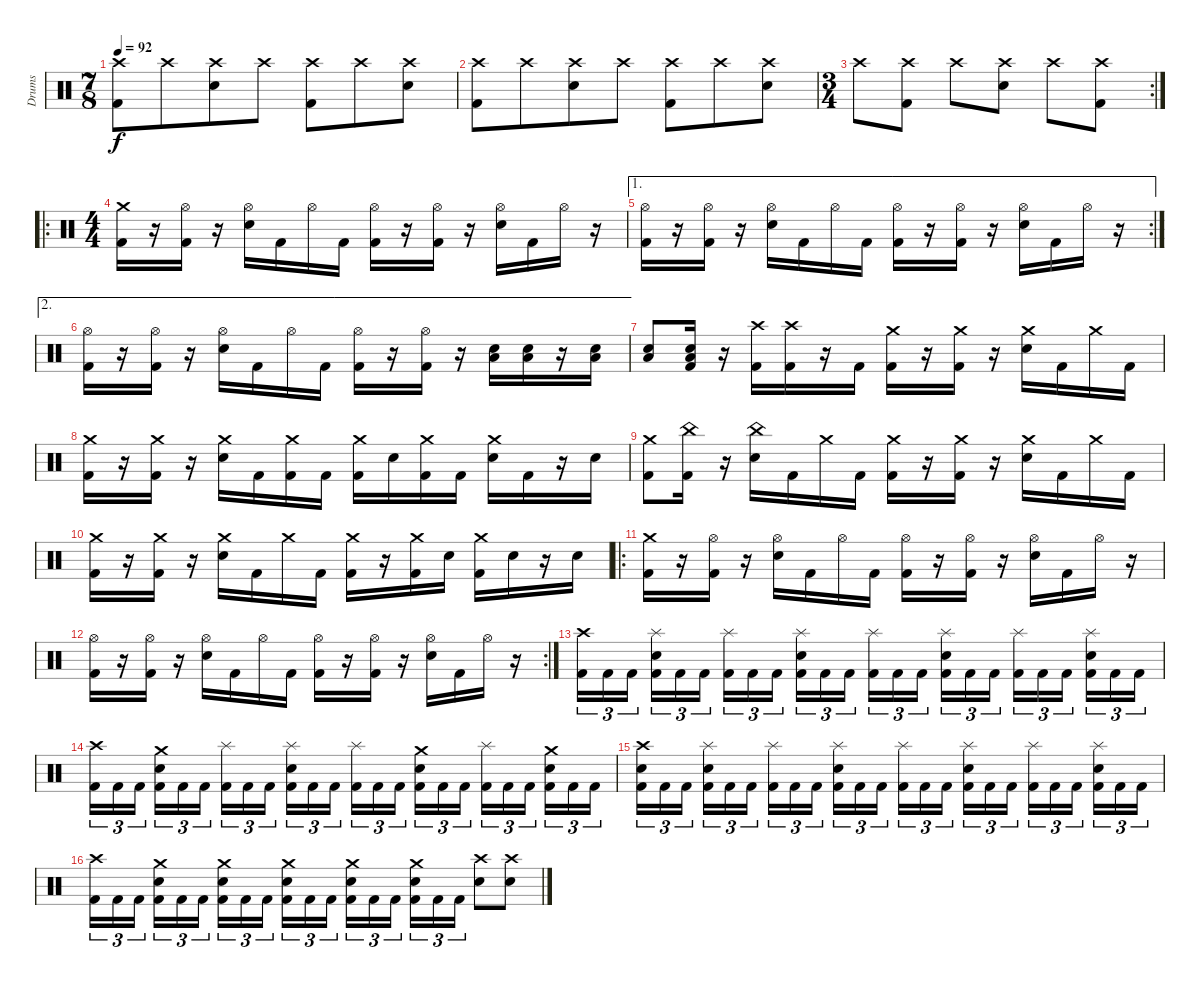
\track ("Drums" "Drums") {instrument percussion}
\staff {score}
\articulation defaults
\ts (7 8)
\tempo 92
\clef neutral
\ks c
("Crash high (hit)" "Kick (hit) 2").8{dy f} "Crash high (hit)".8 ("Crash high (hit)" "Snare (hit) 2").8 "Crash high (hit)".8 ("Crash high (hit)" "Kick (hit) 2").8 "Crash high (hit)".8 ("Crash high (hit)" "Snare (hit) 2").8 |
("Crash high (hit)" "Kick (hit) 2").8 "Crash high (hit)".8 ("Crash high (hit)" "Snare (hit) 2").8 "Crash high (hit)".8 ("Crash high (hit)" "Kick (hit) 2").8 "Crash high (hit)".8 ("Crash high (hit)" "Snare (hit) 2").8 |
\rc 2
\ts (3 4)
"Crash high (hit)".8 ("Crash high (hit)" "Kick (hit) 2").8 "Crash high (hit)".8 ("Crash high (hit)" "Snare (hit) 2").8 "Crash high (hit)".8 ("Crash high (hit)" "Kick (hit) 2").8 |
\ro
\ts (4 4)
("Crash medium (hit)" "Kick (hit) 2").16 r.16 ("Hi-Hat (open)" "Kick (hit) 2").16 r.16 ("Hi-Hat (open)" "Snare (hit) 2").16 "Kick (hit) 2".16 "Hi-Hat (open)".16 "Kick (hit) 2".16 ("Hi-Hat (open)" "Kick (hit) 2").16 r.16 ("Hi-Hat (open)" "Kick (hit) 2").16 r.16 ("Hi-Hat (open)" "Snare (hit) 2").16 "Kick (hit) 2".16 "Hi-Hat (open)".16 r.16 |
\ae 1
\rc 2
("Hi-Hat (open)" "Kick (hit) 2").16 r.16 ("Hi-Hat (open)" "Kick (hit) 2").16 r.16 ("Hi-Hat (open)" "Snare (hit) 2").16 "Kick (hit) 2".16 "Hi-Hat (open)".16 "Kick (hit) 2".16 ("Hi-Hat (open)" "Kick (hit) 2").16 r.16 ("Hi-Hat (open)" "Kick (hit) 2").16 r.16 ("Hi-Hat (open)" "Snare (hit) 2").16 "Kick (hit) 2".16 "Hi-Hat (open)".16 r.16 |
\ae 2
("Hi-Hat (open)" "Kick (hit) 2").16 r.16 ("Hi-Hat (open)" "Kick (hit) 2").16 r.16 ("Hi-Hat (open)" "Snare (hit) 2").16 "Kick (hit) 2".16 "Hi-Hat (open)".16 "Kick (hit) 2".16 ("Hi-Hat (open)" "Kick (hit) 2").16 r.16 ("Hi-Hat (open)" "Kick (hit) 2").16 r.16 ("Low Floor Tom (hit)" "Snare (hit) 2").16 ("Low Floor Tom (hit)" "Snare (hit) 2").16 r.16 ("Low Floor Tom (hit)" "Snare (hit) 2").16 |
("Low Floor Tom (hit)" "Snare (hit) 2").8 ("Low Floor Tom (hit)" "Snare (hit) 2" "Kick (hit) 2").16 r.16 ("Crash high (hit)" "Kick (hit) 2").16 ("Crash high (hit)" "Kick (hit) 2").16 r.16 "Kick (hit) 2".16 ("Crash medium (hit)" "Kick (hit) 2").16 r.16 ("Crash medium (hit)" "Kick (hit) 2").16 r.16 ("Crash medium (hit)" "Snare (hit) 2").16 "Kick (hit) 2".16 "Crash medium (hit)".16 "Kick (hit) 2".16 |
("Crash medium (hit)" "Kick (hit) 2").16 r.16 ("Crash medium (hit)" "Kick (hit) 2").16 r.16 ("Crash medium (hit)" "Snare (hit) 2").16 "Kick (hit) 2".16 ("Crash medium (hit)" "Kick (hit) 2").16 "Kick (hit) 2".16 ("Crash medium (hit)" "Kick (hit) 2").16 "Snare (hit) 2".16 ("Crash medium (hit)" "Kick (hit) 2").16 "Kick (hit) 2".16 ("Crash medium (hit)" "Snare (hit) 2").16 "Kick (hit) 2".16 r.16 "Snare (hit) 2".16 |
("Crash medium (hit)" "Kick (hit) 2").8 ("China (hit)" "Kick (hit) 2").16 r.16 ("China (hit)" "Snare (hit) 2").16 "Kick (hit) 2".16 "Crash medium (hit)".16 "Kick (hit) 2".16 ("Crash medium (hit)" "Kick (hit) 2").16 r.16 ("Crash medium (hit)" "Kick (hit) 2").16 r.16 ("Crash medium (hit)" "Snare (hit) 2").16 "Kick (hit) 2".16 "Crash medium (hit)".16 "Kick (hit) 2".16 |
("Crash medium (hit)" "Kick (hit) 2").16 r.16 ("Crash medium (hit)" "Kick (hit) 2").16 r.16 ("Crash medium (hit)" "Snare (hit) 2").16 "Kick (hit) 2".16 "Crash medium (hit)".16 "Kick (hit) 2".16 ("Crash medium (hit)" "Kick (hit) 2").16 r.16 ("Crash medium (hit)" "Kick (hit) 2").16 "Snare (hit) 2".16 ("Crash medium (hit)" "Kick (hit) 2").16 "Snare (hit) 2".16 r.16 "Snare (hit) 2".16 |
\ro
("Crash medium (hit)" "Kick (hit) 2").16 r.16 ("Hi-Hat (open)" "Kick (hit) 2").16 r.16 ("Hi-Hat (open)" "Snare (hit) 2").16 "Kick (hit) 2".16 "Hi-Hat (open)".16 "Kick (hit) 2".16 ("Hi-Hat (open)" "Kick (hit) 2").16 r.16 ("Hi-Hat (open)" "Kick (hit) 2").16 r.16 ("Hi-Hat (open)" "Snare (hit) 2").16 "Kick (hit) 2".16 "Hi-Hat (open)".16 r.16 |
\rc 2
("Hi-Hat (open)" "Kick (hit) 2").16 r.16 ("Hi-Hat (open)" "Kick (hit) 2").16 r.16 ("Hi-Hat (open)" "Snare (hit) 2").16 "Kick (hit) 2".16 "Hi-Hat (open)".16 "Kick (hit) 2".16 ("Hi-Hat (open)" "Kick (hit) 2").16 r.16 ("Hi-Hat (open)" "Kick (hit) 2").16 r.16 ("Hi-Hat (open)" "Snare (hit) 2").16 "Kick (hit) 2".16 "Hi-Hat (open)".16 r.16 |
("Crash high (hit)" "Kick (hit) 2").16{tu (3 2)} "Kick (hit) 2".16{tu (3 2)} "Kick (hit) 2".16{tu (3 2)} ("Splash (hit)" "Snare (hit) 2" "Kick (hit) 2").16{tu (3 2)} "Kick (hit) 2".16{tu (3 2)} "Kick (hit) 2".16{tu (3 2)} ("Splash (hit)" "Kick (hit) 2").16{tu (3 2)} "Kick (hit) 2".16{tu (3 2)} "Kick (hit) 2".16{tu (3 2)} ("Splash (hit)" "Snare (hit) 2" "Kick (hit) 2").16{tu (3 2)} "Kick (hit) 2".16{tu (3 2)} "Kick (hit) 2".16{tu (3 2)} ("Splash (hit)" "Kick (hit) 2").16{tu (3 2)} "Kick (hit) 2".16{tu (3 2)} "Kick (hit) 2".16{tu (3 2)} ("Splash (hit)" "Snare (hit) 2" "Kick (hit) 2").16{tu (3 2)} "Kick (hit) 2".16{tu (3 2)} "Kick (hit) 2".16{tu (3 2)} ("Splash (hit)" "Kick (hit) 2").16{tu (3 2)} "Kick (hit) 2".16{tu (3 2)} "Kick (hit) 2".16{tu (3 2)} ("Splash (hit)" "Snare (hit) 2" "Kick (hit) 2").16{tu (3 2)} "Kick (hit) 2".16{tu (3 2)} "Kick (hit) 2".16{tu (3 2)} |
("Crash high (hit)" "Kick (hit) 2").16{tu (3 2)} "Kick (hit) 2".16{tu (3 2)} "Kick (hit) 2".16{tu (3 2)} ("Crash medium (hit)" "Snare (hit) 2" "Kick (hit) 2").16{tu (3 2)} "Kick (hit) 2".16{tu (3 2)} "Kick (hit) 2".16{tu (3 2)} ("Splash (hit)" "Kick (hit) 2").16{tu (3 2)} "Kick (hit) 2".16{tu (3 2)} "Kick (hit) 2".16{tu (3 2)} ("Splash (hit)" "Snare (hit) 2" "Kick (hit) 2").16{tu (3 2)} "Kick (hit) 2".16{tu (3 2)} "Kick (hit) 2".16{tu (3 2)} ("Splash (hit)" "Kick (hit) 2").16{tu (3 2)} "Kick (hit) 2".16{tu (3 2)} "Kick (hit) 2".16{tu (3 2)} ("Crash medium (hit)" "Snare (hit) 2" "Kick (hit) 2").16{tu (3 2)} "Kick (hit) 2".16{tu (3 2)} "Kick (hit) 2".16{tu (3 2)} ("Splash (hit)" "Kick (hit) 2").16{tu (3 2)} "Kick (hit) 2".16{tu (3 2)} "Kick (hit) 2".16{tu (3 2)} ("Crash medium (hit)" "Snare (hit) 2" "Kick (hit) 2").16{tu (3 2)} "Kick (hit) 2".16{tu (3 2)} "Kick (hit) 2".16{tu (3 2)} |
("Crash high (hit)" "Snare (hit) 2" "Kick (hit) 2").16{tu (3 2)} "Kick (hit) 2".16{tu (3 2)} "Kick (hit) 2".16{tu (3 2)} ("Splash (hit)" "Snare (hit) 2" "Kick (hit) 2").16{tu (3 2)} "Kick (hit) 2".16{tu (3 2)} "Kick (hit) 2".16{tu (3 2)} ("Splash (hit)" "Kick (hit) 2").16{tu (3 2)} "Kick (hit) 2".16{tu (3 2)} "Kick (hit) 2".16{tu (3 2)} ("Splash (hit)" "Snare (hit) 2" "Kick (hit) 2").16{tu (3 2)} "Kick (hit) 2".16{tu (3 2)} "Kick (hit) 2".16{tu (3 2)} ("Splash (hit)" "Kick (hit) 2").16{tu (3 2)} "Kick (hit) 2".16{tu (3 2)} "Kick (hit) 2".16{tu (3 2)} ("Splash (hit)" "Snare (hit) 2" "Kick (hit) 2").16{tu (3 2)} "Kick (hit) 2".16{tu (3 2)} "Kick (hit) 2".16{tu (3 2)} ("Splash (hit)" "Kick (hit) 2").16{tu (3 2)} "Kick (hit) 2".16{tu (3 2)} "Kick (hit) 2".16{tu (3 2)} ("Splash (hit)" "Snare (hit) 2" "Kick (hit) 2").16{tu (3 2)} "Kick (hit) 2".16{tu (3 2)} "Kick (hit) 2".16{tu (3 2)} |
("Crash high (hit)" "Kick (hit) 2").16{tu (3 2)} "Kick (hit) 2".16{tu (3 2)} "Kick (hit) 2".16{tu (3 2)} ("Crash medium (hit)" "Snare (hit) 2" "Kick (hit) 2").16{tu (3 2)} "Kick (hit) 2".16{tu (3 2)} "Kick (hit) 2".16{tu (3 2)} ("Crash medium (hit)" "Snare (hit) 2" "Kick (hit) 2").16{tu (3 2)} "Kick (hit) 2".16{tu (3 2)} "Kick (hit) 2".16{tu (3 2)} ("Crash medium (hit)" "Snare (hit) 2" "Kick (hit) 2").16{tu (3 2)} "Kick (hit) 2".16{tu (3 2)} "Kick (hit) 2".16{tu (3 2)} ("Crash medium (hit)" "Snare (hit) 2" "Kick (hit) 2").16{tu (3 2)} "Kick (hit) 2".16{tu (3 2)} "Kick (hit) 2".16{tu (3 2)} ("Crash medium (hit)" "Snare (hit) 2" "Kick (hit) 2").16{tu (3 2)} "Kick (hit) 2".16{tu (3 2)} "Kick (hit) 2".16{tu (3 2)} ("Crash high (hit)" "Snare (hit) 2").8 ("Crash high (hit)" "Snare (hit) 2").8
